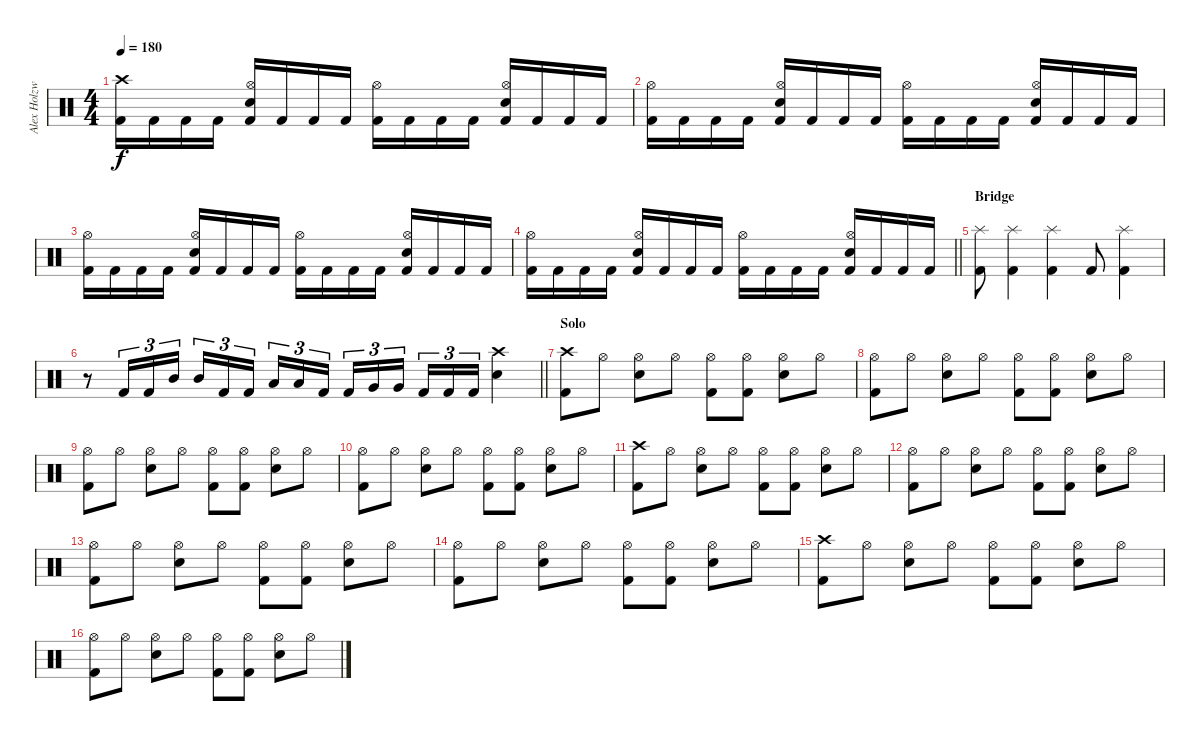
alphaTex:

\track ("Alex Holzwarth" "Alex Holzw") {instrument percussion}
\staff {score}
\articulation defaults
\ts (4 4)
\tempo 180
\clef neutral
\ks c
("Crash high (hit)" "Kick (hit) 2").16{dy f} "Kick (hit) 2".16 "Kick (hit) 2".16 "Kick (hit) 2".16 ("Hi-Hat (open)" "Electric Snare (hit)" "Kick (hit) 2").16 "Kick (hit) 2".16 "Kick (hit) 2".16 "Kick (hit) 2".16 ("Hi-Hat (open)" "Kick (hit) 2").16 "Kick (hit) 2".16 "Kick (hit) 2".16 "Kick (hit) 2".16 ("Hi-Hat (open)" "Electric Snare (hit)" "Kick (hit) 2").16 "Kick (hit) 2".16 "Kick (hit) 2".16 "Kick (hit) 2".16 |
("Hi-Hat (open)" "Kick (hit) 2").16 "Kick (hit) 2".16 "Kick (hit) 2".16 "Kick (hit) 2".16 ("Hi-Hat (open)" "Electric Snare (hit)" "Kick (hit) 2").16 "Kick (hit) 2".16 "Kick (hit) 2".16 "Kick (hit) 2".16 ("Hi-Hat (open)" "Kick (hit) 2").16 "Kick (hit) 2".16 "Kick (hit) 2".16 "Kick (hit) 2".16 ("Hi-Hat (open)" "Electric Snare (hit)" "Kick (hit) 2").16 "Kick (hit) 2".16 "Kick (hit) 2".16 "Kick (hit) 2".16 |
("Hi-Hat (open)" "Kick (hit) 2").16 "Kick (hit) 2".16 "Kick (hit) 2".16 "Kick (hit) 2".16 ("Hi-Hat (open)" "Electric Snare (hit)" "Kick (hit) 2").16 "Kick (hit) 2".16 "Kick (hit) 2".16 "Kick (hit) 2".16 ("Hi-Hat (open)" "Kick (hit) 2").16 "Kick (hit) 2".16 "Kick (hit) 2".16 "Kick (hit) 2".16 ("Hi-Hat (open)" "Electric Snare (hit)" "Kick (hit) 2").16 "Kick (hit) 2".16 "Kick (hit) 2".16 "Kick (hit) 2".16 |
\barLineRight lightlight
("Hi-Hat (open)" "Kick (hit) 2").16 "Kick (hit) 2".16 "Kick (hit) 2".16 "Kick (hit) 2".16 ("Hi-Hat (open)" "Electric Snare (hit)" "Kick (hit) 2").16 "Kick (hit) 2".16 "Kick (hit) 2".16 "Kick (hit) 2".16 ("Hi-Hat (open)" "Kick (hit) 2").16 "Kick (hit) 2".16 "Kick (hit) 2".16 "Kick (hit) 2".16 ("Hi-Hat (open)" "Electric Snare (hit)" "Kick (hit) 2").16 "Kick (hit) 2".16 "Kick (hit) 2".16 "Kick (hit) 2".16 |
\section ("" "Bridge")
("Splash (hit)" "Kick (hit) 2").8 ("Splash (hit)" "Kick (hit) 2").4 ("Splash (hit)" "Kick (hit) 2").4 "Kick (hit) 2".8 ("Splash (hit)" "Kick (hit) 2").4 |
\barLineRight lightlight
r.8 "Kick (hit) 2".16{tu (3 2)} "Kick (hit) 2".16{tu (3 2)} "Mid Tom (hit)".16{tu (3 2)} "Mid Tom (hit)".16{tu (3 2)} "Kick (hit) 2".16{tu (3 2)} "Kick (hit) 2".16{tu (3 2) beam splitsecondary} "Low Tom (hit)".16{tu (3 2)} "Low Tom (hit)".16{tu (3 2)} "Kick (hit) 2".16{tu (3 2)} "Kick (hit) 2".16{tu (3 2)} "Very Low Tom (hit)".16{tu (3 2)} "Very Low Tom (hit)".16{tu (3 2) beam splitsecondary} "Kick (hit) 2".16{tu (3 2)} "Kick (hit) 2".16{tu (3 2)} "Kick (hit) 2".16{tu (3 2)} ("Crash high (hit)" "Electric Snare (hit)").4 |
\section ("" "Solo")
("Crash high (hit)" "Kick (hit) 2").8 "Hi-Hat (open)".8 ("Hi-Hat (open)" "Electric Snare (hit)").8 "Hi-Hat (open)".8 ("Hi-Hat (open)" "Kick (hit) 2").8 ("Hi-Hat (open)" "Kick (hit) 2").8 ("Hi-Hat (open)" "Electric Snare (hit)").8 "Hi-Hat (open)".8 |
("Hi-Hat (open)" "Kick (hit) 2").8 "Hi-Hat (open)".8 ("Hi-Hat (open)" "Electric Snare (hit)").8 "Hi-Hat (open)".8 ("Hi-Hat (open)" "Kick (hit) 2").8 ("Hi-Hat (open)" "Kick (hit) 2").8 ("Hi-Hat (open)" "Electric Snare (hit)").8 "Hi-Hat (open)".8 |
("Hi-Hat (open)" "Kick (hit) 2").8 "Hi-Hat (open)".8 ("Hi-Hat (open)" "Electric Snare (hit)").8 "Hi-Hat (open)".8 ("Hi-Hat (open)" "Kick (hit) 2").8 ("Hi-Hat (open)" "Kick (hit) 2").8 ("Hi-Hat (open)" "Electric Snare (hit)").8 "Hi-Hat (open)".8 |
("Hi-Hat (open)" "Kick (hit) 2").8 "Hi-Hat (open)".8 ("Hi-Hat (open)" "Electric Snare (hit)").8 "Hi-Hat (open)".8 ("Hi-Hat (open)" "Kick (hit) 2").8 ("Hi-Hat (open)" "Kick (hit) 2").8 ("Hi-Hat (open)" "Electric Snare (hit)").8 "Hi-Hat (open)".8 |
("Crash high (hit)" "Kick (hit) 2").8 "Hi-Hat (open)".8 ("Hi-Hat (open)" "Electric Snare (hit)").8 "Hi-Hat (open)".8 ("Hi-Hat (open)" "Kick (hit) 2").8 ("Hi-Hat (open)" "Kick (hit) 2").8 ("Hi-Hat (open)" "Electric Snare (hit)").8 "Hi-Hat (open)".8 |
("Hi-Hat (open)" "Kick (hit) 2").8 "Hi-Hat (open)".8 ("Hi-Hat (open)" "Electric Snare (hit)").8 "Hi-Hat (open)".8 ("Hi-Hat (open)" "Kick (hit) 2").8 ("Hi-Hat (open)" "Kick (hit) 2").8 ("Hi-Hat (open)" "Electric Snare (hit)").8 "Hi-Hat (open)".8 |
("Hi-Hat (open)" "Kick (hit) 2").8 "Hi-Hat (open)".8 ("Hi-Hat (open)" "Electric Snare (hit)").8 "Hi-Hat (open)".8 ("Hi-Hat (open)" "Kick (hit) 2").8 ("Hi-Hat (open)" "Kick (hit) 2").8 ("Hi-Hat (open)" "Electric Snare (hit)").8 "Hi-Hat (open)".8 |
("Hi-Hat (open)" "Kick (hit) 2").8 "Hi-Hat (open)".8 ("Hi-Hat (open)" "Electric Snare (hit)").8 "Hi-Hat (open)".8 ("Hi-Hat (open)" "Kick (hit) 2").8 ("Hi-Hat (open)" "Kick (hit) 2").8 ("Hi-Hat (open)" "Electric Snare (hit)").8 "Hi-Hat (open)".8 |
("Crash high (hit)" "Kick (hit) 2").8 "Hi-Hat (open)".8 ("Hi-Hat (open)" "Electric Snare (hit)").8 "Hi-Hat (open)".8 ("Hi-Hat (open)" "Kick (hit) 2").8 ("Hi-Hat (open)" "Kick (hit) 2").8 ("Hi-Hat (open)" "Electric Snare (hit)").8 "Hi-Hat (open)".8 |
("Hi-Hat (open)" "Kick (hit) 2").8 "Hi-Hat (open)".8 ("Hi-Hat (open)" "Electric Snare (hit)").8 "Hi-Hat (open)".8 ("Hi-Hat (open)" "Kick (hit) 2").8 ("Hi-Hat (open)" "Kick (hit) 2").8 ("Hi-Hat (open)" "Electric Snare (hit)").8 "Hi-Hat (open)".8
